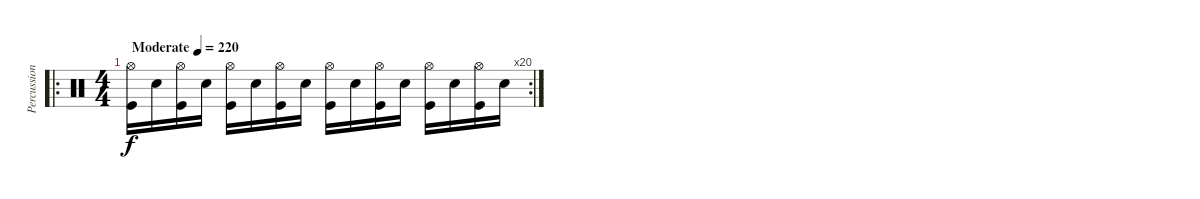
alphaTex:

\track ("Percussion" "Percussion") {instrument percussion}
\staff {score}
\articulation defaults
\ro
\rc 20
\ts (4 4)
\tempo (220 "Moderate")
\clef neutral
\ks c
("Hi-Hat (open)" "Kick (hit)").16{dy f} "Snare (hit) 2".16 ("Hi-Hat (open)" "Kick (hit)").16 "Snare (hit) 2".16 ("Hi-Hat (open)" "Kick (hit)").16 "Snare (hit) 2".16 ("Hi-Hat (open)" "Kick (hit)").16 "Snare (hit) 2".16 ("Hi-Hat (open)" "Kick (hit)").16 "Snare (hit) 2".16 ("Hi-Hat (open)" "Kick (hit)").16 "Snare (hit) 2".16 ("Hi-Hat (open)" "Kick (hit)").16 "Snare (hit) 2".16 ("Hi-Hat (open)" "Kick (hit)").16 "Snare (hit) 2".16
